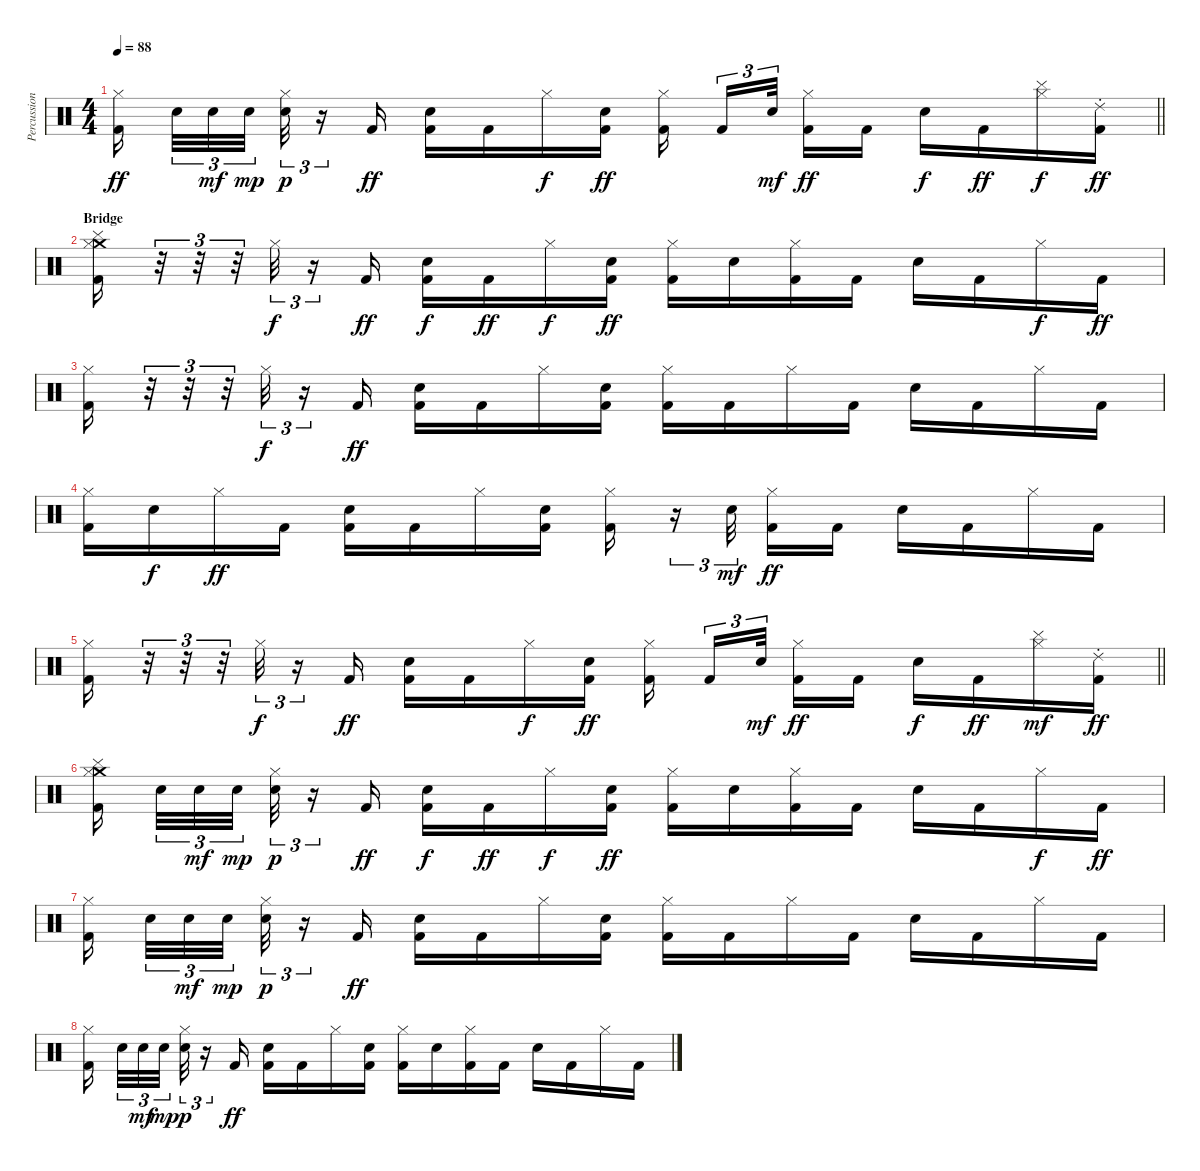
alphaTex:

\track ("Percussion" "Percussion") {instrument percussion}
\staff {score}
\articulation defaults
\ts (4 4)
\tempo 88
\clef neutral
\barLineRight lightlight
\ks c
("Hi-Hat (closed)" "Kick (hit) 2").16{dy ff beam splitsecondary} "Snare (hit) 2".32{tu (3 2)} "Snare (hit) 2".32{tu (3 2) dy mf} "Snare (hit) 2".32{tu (3 2) dy mp beam splitsecondary} ("Hi-Hat (closed)" "Snare (hit) 2").32{tu (3 2) dy p} r.16{tu (3 2)} "Kick (hit) 2".16{dy ff} ("Electric Snare (hit)" "Kick (hit) 2").16 "Kick (hit) 2".16 "Hi-Hat (closed)".16{dy f} ("Snare (hit) 2" "Kick (hit) 2").16{dy ff} ("Hi-Hat (closed)" "Kick (hit) 2").16{beam splitsecondary} "Kick (hit) 2".16{tu (3 2)} "Snare (hit) 2".32{tu (3 2) dy mf beam splitsecondary} ("Hi-Hat (closed)" "Kick (hit) 2").16{dy ff} "Kick (hit) 2".16 "Snare (hit) 2".16{dy f} "Kick (hit) 2".16{dy ff} ("Cymbal (hit)" "Hi-Hat (closed)").16{dy f} ("Ride (choke) 2" "Kick (hit) 2").16{dy ff} |
\section ("" "Bridge")
("Crash medium (hit)" "Cymbal (hit)" "Hi-Hat (closed)" "Kick (hit) 2").16 r.32{tu (3 2)} r.32{tu (3 2)} r.32{tu (3 2)} "Hi-Hat (closed)".32{tu (3 2) dy f} r.16{tu (3 2)} "Kick (hit) 2".16{dy ff} ("Snare (hit) 2" "Kick (hit) 2").16{dy f} "Kick (hit) 2".16{dy ff} "Hi-Hat (closed)".16{dy f} ("Electric Snare (hit)" "Kick (hit) 2").16{dy ff} ("Hi-Hat (closed)" "Kick (hit) 2").16 "Snare (hit) 2".16 ("Hi-Hat (closed)" "Kick (hit) 2").16 "Kick (hit) 2".16 "Electric Snare (hit)".16 "Kick (hit) 2".16 "Hi-Hat (closed)".16{dy f} "Kick (hit) 2".16{dy ff} |
("Hi-Hat (closed)" "Kick (hit) 2").16 r.32{tu (3 2)} r.32{tu (3 2)} r.32{tu (3 2)} "Hi-Hat (closed)".32{tu (3 2) dy f} r.16{tu (3 2)} "Kick (hit) 2".16{dy ff} ("Electric Snare (hit)" "Kick (hit) 2").16 "Kick (hit) 2".16 "Hi-Hat (closed)".16 ("Snare (hit) 2" "Kick (hit) 2").16 ("Hi-Hat (closed)" "Kick (hit) 2").16 "Kick (hit) 2".16 "Hi-Hat (closed)".16 "Kick (hit) 2".16 "Electric Snare (hit)".16 "Kick (hit) 2".16 "Hi-Hat (closed)".16 "Kick (hit) 2".16 |
("Hi-Hat (closed)" "Kick (hit) 2").16 "Snare (hit) 2".16{dy f} "Hi-Hat (closed)".16{dy ff} "Kick (hit) 2".16 ("Snare (hit) 2" "Kick (hit) 2").16 "Kick (hit) 2".16 "Hi-Hat (closed)".16 ("Electric Snare (hit)" "Kick (hit) 2").16 ("Hi-Hat (closed)" "Kick (hit) 2").16 r.16{tu (3 2)} "Snare (hit) 2".32{tu (3 2) dy mf beam splitsecondary} ("Hi-Hat (closed)" "Kick (hit) 2").16{dy ff} "Kick (hit) 2".16 "Snare (hit) 2".16 "Kick (hit) 2".16 "Hi-Hat (closed)".16 "Kick (hit) 2".16 |
\barLineRight lightlight
("Hi-Hat (closed)" "Kick (hit) 2").16 r.32{tu (3 2)} r.32{tu (3 2)} r.32{tu (3 2)} "Hi-Hat (closed)".32{tu (3 2) dy f} r.16{tu (3 2)} "Kick (hit) 2".16{dy ff} ("Snare (hit) 2" "Kick (hit) 2").16 "Kick (hit) 2".16 "Hi-Hat (closed)".16{dy f} ("Snare (hit) 2" "Kick (hit) 2").16{dy ff} ("Hi-Hat (closed)" "Kick (hit) 2").16{beam splitsecondary} "Kick (hit) 2".16{tu (3 2)} "Snare (hit) 2".32{tu (3 2) dy mf beam splitsecondary} ("Hi-Hat (closed)" "Kick (hit) 2").16{dy ff} "Kick (hit) 2".16 "Snare (hit) 2".16{dy f} "Kick (hit) 2".16{dy ff} ("Cymbal (hit)" "Hi-Hat (closed)").16{dy mf} ("Ride (choke) 2" "Kick (hit) 2").16{dy ff} |
("Crash medium (hit)" "Cymbal (hit)" "Hi-Hat (closed)" "Kick (hit) 2").16{beam splitsecondary} "Snare (hit) 2".32{tu (3 2)} "Snare (hit) 2".32{tu (3 2) dy mf} "Snare (hit) 2".32{tu (3 2) dy mp beam splitsecondary} ("Hi-Hat (closed)" "Snare (hit) 2").32{tu (3 2) dy p} r.16{tu (3 2)} "Kick (hit) 2".16{dy ff} ("Snare (hit) 2" "Kick (hit) 2").16{dy f} "Kick (hit) 2".16{dy ff} "Hi-Hat (closed)".16{dy f} ("Electric Snare (hit)" "Kick (hit) 2").16{dy ff} ("Hi-Hat (closed)" "Kick (hit) 2").16 "Snare (hit) 2".16 ("Hi-Hat (closed)" "Kick (hit) 2").16 "Kick (hit) 2".16 "Electric Snare (hit)".16 "Kick (hit) 2".16 "Hi-Hat (closed)".16{dy f} "Kick (hit) 2".16{dy ff} |
("Hi-Hat (closed)" "Kick (hit) 2").16{beam splitsecondary} "Snare (hit) 2".32{tu (3 2)} "Snare (hit) 2".32{tu (3 2) dy mf} "Snare (hit) 2".32{tu (3 2) dy mp beam splitsecondary} ("Hi-Hat (closed)" "Snare (hit) 2").32{tu (3 2) dy p} r.16{tu (3 2)} "Kick (hit) 2".16{dy ff} ("Electric Snare (hit)" "Kick (hit) 2").16 "Kick (hit) 2".16 "Hi-Hat (closed)".16 ("Snare (hit) 2" "Kick (hit) 2").16 ("Hi-Hat (closed)" "Kick (hit) 2").16 "Kick (hit) 2".16 "Hi-Hat (closed)".16 "Kick (hit) 2".16 "Electric Snare (hit)".16 "Kick (hit) 2".16 "Hi-Hat (closed)".16 "Kick (hit) 2".16 |
("Hi-Hat (closed)" "Kick (hit) 2").16{beam splitsecondary} "Snare (hit) 2".32{tu (3 2)} "Snare (hit) 2".32{tu (3 2) dy mf} "Snare (hit) 2".32{tu (3 2) dy mp beam splitsecondary} ("Hi-Hat (closed)" "Snare (hit) 2").32{tu (3 2) dy p} r.16{tu (3 2)} "Kick (hit) 2".16{dy ff} ("Snare (hit) 2" "Kick (hit) 2").16 "Kick (hit) 2".16 "Hi-Hat (closed)".16 ("Electric Snare (hit)" "Kick (hit) 2").16 ("Hi-Hat (closed)" "Kick (hit) 2").16 "Snare (hit) 2".16 ("Hi-Hat (closed)" "Kick (hit) 2").16 "Kick (hit) 2".16 "Electric Snare (hit)".16 "Kick (hit) 2".16 "Hi-Hat (closed)".16 "Kick (hit) 2".16
